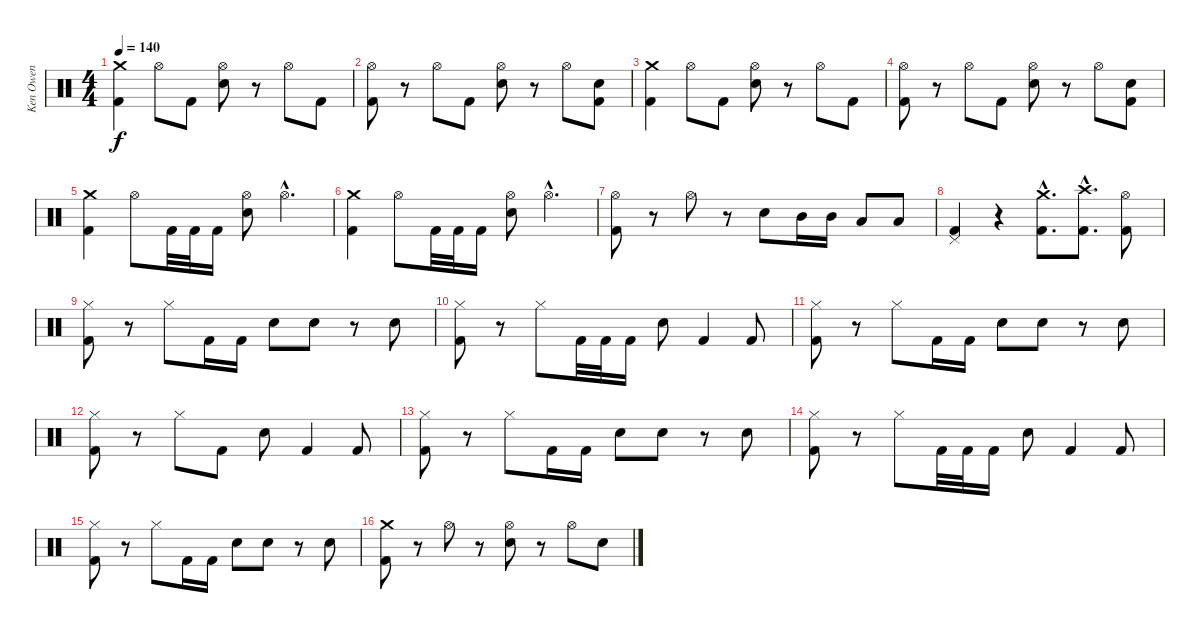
\track ("Ken Owen" "Ken Owen") {instrument percussion}
\staff {score}
\articulation defaults
\ts (4 4)
\tempo 140
\clef neutral
\ks c
("Crash medium (hit)" "Kick (hit) 2").4{dy f} "Hi-Hat (open)".8 "Kick (hit) 2".8 ("Hi-Hat (open)" "Electric Snare (hit)").8 r.8 "Hi-Hat (open)".8 "Kick (hit) 2".8 |
("Hi-Hat (open)" "Kick (hit) 2").8 r.8 "Hi-Hat (open)".8 "Kick (hit) 2".8 ("Hi-Hat (open)" "Electric Snare (hit)").8 r.8 "Hi-Hat (open)".8 ("Electric Snare (hit)" "Kick (hit) 2").8 |
("Crash medium (hit)" "Kick (hit) 2").4 "Hi-Hat (open)".8 "Kick (hit) 2".8 ("Hi-Hat (open)" "Electric Snare (hit)").8 r.8 "Hi-Hat (open)".8 "Kick (hit) 2".8 |
("Hi-Hat (open)" "Kick (hit) 2").8 r.8 "Hi-Hat (open)".8 "Kick (hit) 2".8 ("Hi-Hat (open)" "Electric Snare (hit)").8 r.8 "Hi-Hat (open)".8 ("Electric Snare (hit)" "Kick (hit) 2").8 |
("Crash medium (hit)" "Kick (hit) 2").4 "Hi-Hat (open)".8 "Kick (hit) 2".32 "Kick (hit) 2".32 "Kick (hit) 2".16 ("Hi-Hat (open)" "Electric Snare (hit)").8 "Hi-Hat (open)"{hac}.4{d} |
("Crash medium (hit)" "Kick (hit) 2").4 "Hi-Hat (open)".8 "Kick (hit) 2".32 "Kick (hit) 2".32 "Kick (hit) 2".16 ("Hi-Hat (open)" "Electric Snare (hit)").8 "Hi-Hat (open)"{hac}.4{d} |
("Hi-Hat (open)" "Kick (hit) 2").8 r.8 "Hi-Hat (open)".8 r.8 "Electric Snare (hit)".8 "Mid Tom (hit)".16 "Mid Tom (hit)".16 "Low Floor Tom (hit)".8 "Low Floor Tom (hit)".8 |
("Pedal Hi-Hat (hit)" "Kick (hit) 2").4 r.4 ("Crash medium (hit)"{hac} "Kick (hit) 2"{hac}).8{d} ("Crash high (hit)"{hac} "Kick (hit) 2"{hac}).8{d} ("Hi-Hat (open)" "Kick (hit) 2").8 |
("Hi-Hat (closed)" "Kick (hit) 2").8 r.8 "Hi-Hat (closed)".8 "Kick (hit) 2".16 "Kick (hit) 2".16 "Electric Snare (hit)".8 "Electric Snare (hit)".8 r.8 "Electric Snare (hit)".8 |
("Hi-Hat (closed)" "Kick (hit) 2").8 r.8 "Hi-Hat (closed)".8 "Kick (hit) 2".32 "Kick (hit) 2".32 "Kick (hit) 2".16 "Electric Snare (hit)".8 "Kick (hit) 2".4 "Kick (hit) 2".8 |
("Hi-Hat (closed)" "Kick (hit) 2").8 r.8 "Hi-Hat (closed)".8 "Kick (hit) 2".16 "Kick (hit) 2".16 "Electric Snare (hit)".8 "Electric Snare (hit)".8 r.8 "Electric Snare (hit)".8 |
("Hi-Hat (closed)" "Kick (hit) 2").8 r.8 "Hi-Hat (closed)".8 "Kick (hit) 2".8 "Electric Snare (hit)".8 "Kick (hit) 2".4 "Kick (hit) 2".8 |
("Hi-Hat (closed)" "Kick (hit) 2").8 r.8 "Hi-Hat (closed)".8 "Kick (hit) 2".16 "Kick (hit) 2".16 "Electric Snare (hit)".8 "Electric Snare (hit)".8 r.8 "Electric Snare (hit)".8 |
("Hi-Hat (closed)" "Kick (hit) 2").8 r.8 "Hi-Hat (closed)".8 "Kick (hit) 2".32 "Kick (hit) 2".32 "Kick (hit) 2".16 "Electric Snare (hit)".8 "Kick (hit) 2".4 "Kick (hit) 2".8 |
("Hi-Hat (closed)" "Kick (hit) 2").8 r.8 "Hi-Hat (closed)".8 "Kick (hit) 2".16 "Kick (hit) 2".16 "Electric Snare (hit)".8 "Electric Snare (hit)".8 r.8 "Electric Snare (hit)".8 |
("Crash medium (hit)" "Kick (hit) 2").8 r.8 "Hi-Hat (open)".8 r.8 ("Hi-Hat (open)" "Electric Snare (hit)").8 r.8 "Hi-Hat (open)".8 "Electric Snare (hit)".8
